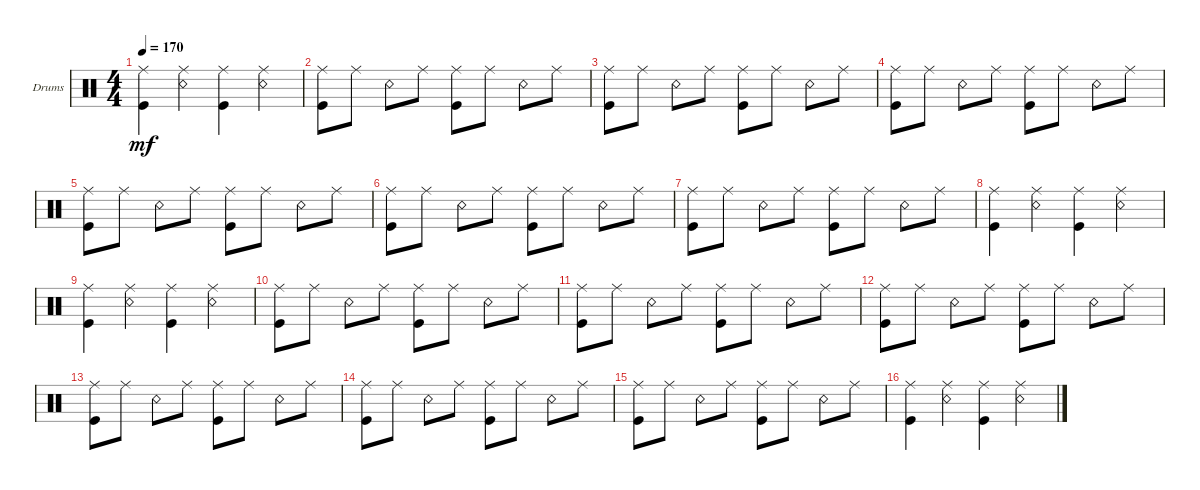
\defaultSystemsLayout 4
\bracketExtendMode groupsimilarinstruments
\firstSystemTrackNameOrientation horizontal
\otherSystemsTrackNameOrientation horizontal
\track ("Drumkit" "Drums") {instrument percussion}
\staff {score}
\articulation defaults
\ts (4 4)
\tempo 170
\clef neutral
\scale
0.333333
\ks c
("Kick (hit)" "Ride (middle)").4{dy mf} ("Snare (rim shot)" "Ride (middle)").4 ("Kick (hit)" "Ride (middle)").4 ("Snare (rim shot)" "Ride (middle)").4 |
\scale
0.333333 ("Kick (hit)" "Ride (middle)").8 "Ride (middle)".8 "Snare (rim shot)".8 "Ride (middle)".8 ("Kick (hit)" "Ride (middle)").8 "Ride (middle)".8 "Snare (rim shot)".8 "Ride (middle)".8 |
\scale
0.333333 ("Kick (hit)" "Ride (middle)").8 "Ride (middle)".8 "Snare (rim shot)".8 "Ride (middle)".8 ("Kick (hit)" "Ride (middle)").8 "Ride (middle)".8 "Snare (rim shot)".8 "Ride (middle)".8 |
\scale
0.333333 ("Kick (hit)" "Ride (middle)").8 "Ride (middle)".8 "Snare (rim shot)".8 "Ride (middle)".8 ("Kick (hit)" "Ride (middle)").8 "Ride (middle)".8 "Snare (rim shot)".8 "Ride (middle)".8 |
\scale
0.333333 ("Kick (hit)" "Ride (middle)").8 "Ride (middle)".8 "Snare (rim shot)".8 "Ride (middle)".8 ("Kick (hit)" "Ride (middle)").8 "Ride (middle)".8 "Snare (rim shot)".8 "Ride (middle)".8 |
\scale
0.333333 ("Kick (hit)" "Ride (middle)").8 "Ride (middle)".8 "Snare (rim shot)".8 "Ride (middle)".8 ("Kick (hit)" "Ride (middle)").8 "Ride (middle)".8 "Snare (rim shot)".8 "Ride (middle)".8 |
\scale
0.333333 ("Kick (hit)" "Ride (middle)").8 "Ride (middle)".8 "Snare (rim shot)".8 "Ride (middle)".8 ("Kick (hit)" "Ride (middle)").8 "Ride (middle)".8 "Snare (rim shot)".8 "Ride (middle)".8 |
\scale
0.333333 ("Kick (hit)" "Ride (middle)").4 ("Snare (rim shot)" "Ride (middle)").4 ("Kick (hit)" "Ride (middle)").4 ("Snare (rim shot)" "Ride (middle)").4 |
\scale
0.333333 ("Kick (hit)" "Ride (middle)").4 ("Snare (rim shot)" "Ride (middle)").4 ("Kick (hit)" "Ride (middle)").4 ("Snare (rim shot)" "Ride (middle)").4 |
\scale
0.333333 ("Kick (hit)" "Ride (middle)").8 "Ride (middle)".8 "Snare (rim shot)".8 "Ride (middle)".8 ("Kick (hit)" "Ride (middle)").8 "Ride (middle)".8 "Snare (rim shot)".8 "Ride (middle)".8 |
\scale
0.333333 ("Kick (hit)" "Ride (middle)").8 "Ride (middle)".8 "Snare (rim shot)".8 "Ride (middle)".8 ("Kick (hit)" "Ride (middle)").8 "Ride (middle)".8 "Snare (rim shot)".8 "Ride (middle)".8 |
\scale
0.333333 ("Kick (hit)" "Ride (middle)").8 "Ride (middle)".8 "Snare (rim shot)".8 "Ride (middle)".8 ("Kick (hit)" "Ride (middle)").8 "Ride (middle)".8 "Snare (rim shot)".8 "Ride (middle)".8 |
\scale
0.333333 ("Kick (hit)" "Ride (middle)").8 "Ride (middle)".8 "Snare (rim shot)".8 "Ride (middle)".8 ("Kick (hit)" "Ride (middle)").8 "Ride (middle)".8 "Snare (rim shot)".8 "Ride (middle)".8 |
\scale
0.333333 ("Kick (hit)" "Ride (middle)").8 "Ride (middle)".8 "Snare (rim shot)".8 "Ride (middle)".8 ("Kick (hit)" "Ride (middle)").8 "Ride (middle)".8 "Snare (rim shot)".8 "Ride (middle)".8 |
\scale
0.333333 ("Kick (hit)" "Ride (middle)").8 "Ride (middle)".8 "Snare (rim shot)".8 "Ride (middle)".8 ("Kick (hit)" "Ride (middle)").8 "Ride (middle)".8 "Snare (rim shot)".8 "Ride (middle)".8 |
\scale
0.333333 ("Kick (hit)" "Ride (middle)").4 ("Snare (rim shot)" "Ride (middle)").4 ("Kick (hit)" "Ride (middle)").4 ("Snare (rim shot)" "Ride (middle)").4
